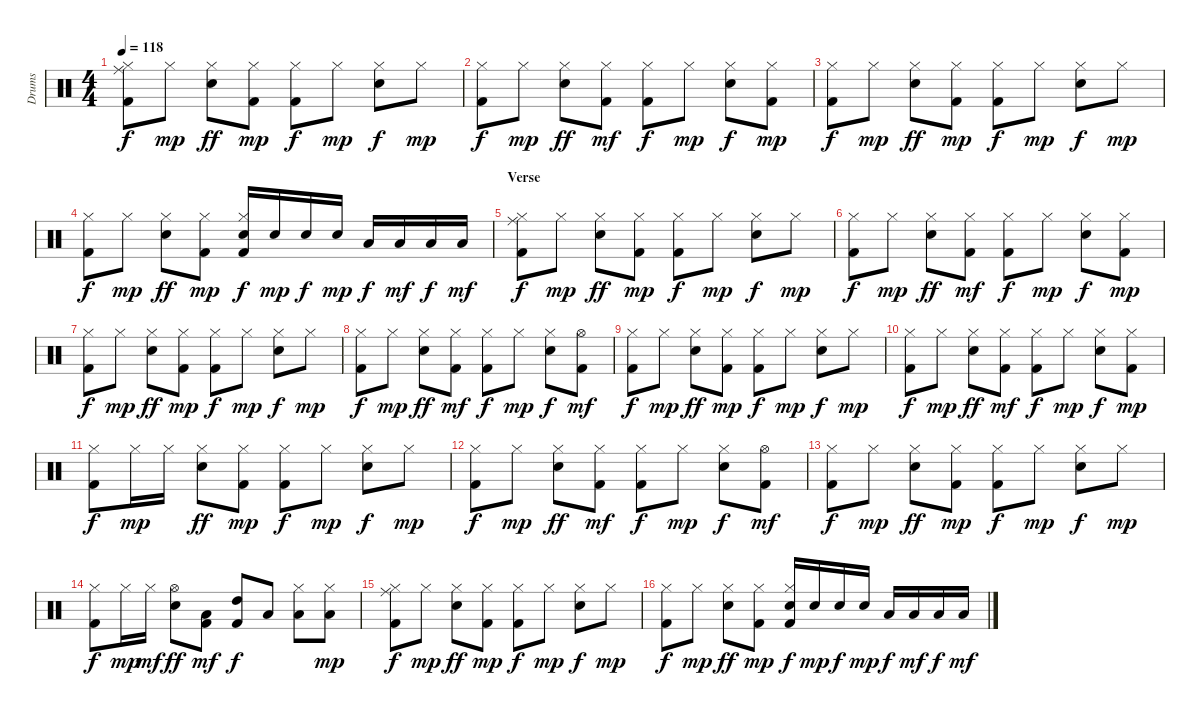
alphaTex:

\track ("Drums" "Drums") {instrument percussion}
\staff {score}
\articulation defaults
\ts (4 4)
\tempo 118
\clef neutral
\ks c
("Kick (hit) 2" "Hi-Hat (closed)" "Ride (middle)").8{dy f} "Hi-Hat (closed)".8{dy mp} ("Snare (hit) 2" "Hi-Hat (closed)").8{dy ff} ("Kick (hit) 2" "Hi-Hat (closed)").8{dy mp} ("Kick (hit) 2" "Hi-Hat (closed)").8{dy f} "Hi-Hat (closed)".8{dy mp} ("Snare (hit) 2" "Hi-Hat (closed)").8{dy f} "Hi-Hat (closed)".8{dy mp} |
("Kick (hit) 2" "Hi-Hat (closed)").8{dy f} "Hi-Hat (closed)".8{dy mp} ("Snare (hit) 2" "Hi-Hat (closed)").8{dy ff} ("Kick (hit) 2" "Hi-Hat (closed)").8{dy mf} ("Kick (hit) 2" "Hi-Hat (closed)").8{dy f} "Hi-Hat (closed)".8{dy mp} ("Snare (hit) 2" "Hi-Hat (closed)").8{dy f} ("Kick (hit) 2" "Hi-Hat (closed)").8{dy mp} |
("Kick (hit) 2" "Hi-Hat (closed)").8{dy f} "Hi-Hat (closed)".8{dy mp} ("Snare (hit) 2" "Hi-Hat (closed)").8{dy ff} ("Kick (hit) 2" "Hi-Hat (closed)").8{dy mp} ("Kick (hit) 2" "Hi-Hat (closed)").8{dy f} "Hi-Hat (closed)".8{dy mp} ("Snare (hit) 2" "Hi-Hat (closed)").8{dy f} "Hi-Hat (closed)".8{dy mp} |
("Kick (hit) 2" "Hi-Hat (closed)").8{dy f} "Hi-Hat (closed)".8{dy mp} ("Snare (hit) 2" "Hi-Hat (closed)").8{dy ff} ("Kick (hit) 2" "Hi-Hat (closed)").8{dy mp} ("Kick (hit) 2" "Snare (hit) 2" "Hi-Hat (closed)").16{dy f} "Snare (hit) 2".16{dy mp} "Snare (hit) 2".16{dy f} "Snare (hit) 2".16{dy mp} "Low Tom (hit)".16{dy f} "Low Tom (hit)".16{dy mf} "Low Tom (hit)".16{dy f} "Low Tom (hit)".16{dy mf} |
\section ("" "Verse")
("Kick (hit) 2" "Hi-Hat (closed)" "Ride (middle)").8{dy f} "Hi-Hat (closed)".8{dy mp} ("Snare (hit) 2" "Hi-Hat (closed)").8{dy ff} ("Kick (hit) 2" "Hi-Hat (closed)").8{dy mp} ("Kick (hit) 2" "Hi-Hat (closed)").8{dy f} "Hi-Hat (closed)".8{dy mp} ("Snare (hit) 2" "Hi-Hat (closed)").8{dy f} "Hi-Hat (closed)".8{dy mp} |
("Kick (hit) 2" "Hi-Hat (closed)").8{dy f} "Hi-Hat (closed)".8{dy mp} ("Snare (hit) 2" "Hi-Hat (closed)").8{dy ff} ("Kick (hit) 2" "Hi-Hat (closed)").8{dy mf} ("Kick (hit) 2" "Hi-Hat (closed)").8{dy f} "Hi-Hat (closed)".8{dy mp} ("Snare (hit) 2" "Hi-Hat (closed)").8{dy f} ("Kick (hit) 2" "Hi-Hat (closed)").8{dy mp} |
("Kick (hit) 2" "Hi-Hat (closed)").8{dy f} "Hi-Hat (closed)".8{dy mp} ("Snare (hit) 2" "Hi-Hat (closed)").8{dy ff} ("Kick (hit) 2" "Hi-Hat (closed)").8{dy mp} ("Kick (hit) 2" "Hi-Hat (closed)").8{dy f} "Hi-Hat (closed)".8{dy mp} ("Snare (hit) 2" "Hi-Hat (closed)").8{dy f} "Hi-Hat (closed)".8{dy mp} |
("Kick (hit) 2" "Hi-Hat (closed)").8{dy f} "Hi-Hat (closed)".8{dy mp} ("Snare (hit) 2" "Hi-Hat (closed)").8{dy ff} ("Kick (hit) 2" "Hi-Hat (closed)").8{dy mf} ("Kick (hit) 2" "Hi-Hat (closed)").8{dy f} "Hi-Hat (closed)".8{dy mp} ("Snare (hit) 2" "Hi-Hat (closed)").8{dy f} ("Kick (hit) 2" "Hi-Hat (open)").8{dy mf} |
("Kick (hit) 2" "Hi-Hat (closed)").8{dy f} "Hi-Hat (closed)".8{dy mp} ("Snare (hit) 2" "Hi-Hat (closed)").8{dy ff} ("Kick (hit) 2" "Hi-Hat (closed)").8{dy mp} ("Kick (hit) 2" "Hi-Hat (closed)").8{dy f} "Hi-Hat (closed)".8{dy mp} ("Snare (hit) 2" "Hi-Hat (closed)").8{dy f} "Hi-Hat (closed)".8{dy mp} |
("Kick (hit) 2" "Hi-Hat (closed)").8{dy f} "Hi-Hat (closed)".8{dy mp} ("Snare (hit) 2" "Hi-Hat (closed)").8{dy ff} ("Kick (hit) 2" "Hi-Hat (closed)").8{dy mf} ("Kick (hit) 2" "Hi-Hat (closed)").8{dy f} "Hi-Hat (closed)".8{dy mp} ("Snare (hit) 2" "Hi-Hat (closed)").8{dy f} ("Kick (hit) 2" "Hi-Hat (closed)").8{dy mp} |
("Kick (hit) 2" "Hi-Hat (closed)").8{dy f} "Hi-Hat (closed)".16{dy mp} "Hi-Hat (closed)".16 ("Snare (hit) 2" "Hi-Hat (closed)").8{dy ff} ("Kick (hit) 2" "Hi-Hat (closed)").8{dy mp} ("Kick (hit) 2" "Hi-Hat (closed)").8{dy f} "Hi-Hat (closed)".8{dy mp} ("Snare (hit) 2" "Hi-Hat (closed)").8{dy f} "Hi-Hat (closed)".8{dy mp} |
("Kick (hit) 2" "Hi-Hat (closed)").8{dy f} "Hi-Hat (closed)".8{dy mp} ("Snare (hit) 2" "Hi-Hat (closed)").8{dy ff} ("Kick (hit) 2" "Hi-Hat (closed)").8{dy mf} ("Kick (hit) 2" "Hi-Hat (closed)").8{dy f} "Hi-Hat (closed)".8{dy mp} ("Snare (hit) 2" "Hi-Hat (closed)").8{dy f} ("Kick (hit) 2" "Hi-Hat (open)").8{dy mf} |
("Kick (hit) 2" "Hi-Hat (closed)").8{dy f} "Hi-Hat (closed)".8{dy mp} ("Snare (hit) 2" "Hi-Hat (closed)").8{dy ff} ("Kick (hit) 2" "Hi-Hat (closed)").8{dy mp} ("Kick (hit) 2" "Hi-Hat (closed)").8{dy f} "Hi-Hat (closed)".8{dy mp} ("Snare (hit) 2" "Hi-Hat (closed)").8{dy f} "Hi-Hat (closed)".8{dy mp} |
("Kick (hit) 2" "Hi-Hat (closed)").8{dy f} "Hi-Hat (closed)".16{dy mp} "Hi-Hat (closed)".16{dy mf} ("Snare (hit) 2" "Hi-Hat (open)").8{dy ff} ("Kick (hit) 2" "Low Tom (hit)").8{dy mf} ("Kick (hit) 2" "High Tom (hit)").8{dy f} "Low Tom (hit)".8 ("Hi-Hat (closed)" "Low Tom (hit)").8 ("Hi-Hat (closed)" "Low Floor Tom (hit)").8{dy mp} |
("Kick (hit) 2" "Hi-Hat (closed)" "Ride (middle)").8{dy f} "Hi-Hat (closed)".8{dy mp} ("Snare (hit) 2" "Hi-Hat (closed)").8{dy ff} ("Kick (hit) 2" "Hi-Hat (closed)").8{dy mp} ("Kick (hit) 2" "Hi-Hat (closed)").8{dy f} "Hi-Hat (closed)".8{dy mp} ("Snare (hit) 2" "Hi-Hat (closed)").8{dy f} "Hi-Hat (closed)".8{dy mp} |
("Kick (hit) 2" "Hi-Hat (closed)").8{dy f} "Hi-Hat (closed)".8{dy mp} ("Snare (hit) 2" "Hi-Hat (closed)").8{dy ff} ("Kick (hit) 2" "Hi-Hat (closed)").8{dy mp} ("Kick (hit) 2" "Snare (hit) 2" "Hi-Hat (closed)").16{dy f} "Snare (hit) 2".16{dy mp} "Snare (hit) 2".16{dy f} "Snare (hit) 2".16{dy mp} "Low Tom (hit)".16{dy f} "Low Tom (hit)".16{dy mf} "Low Tom (hit)".16{dy f} "Low Tom (hit)".16{dy mf}
